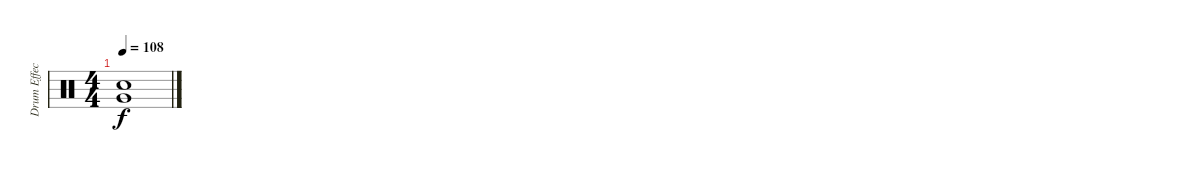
\track ("Drum Effects" "Drum Effec") {instrument percussion}
\staff {score}
\articulation defaults
\ts (4 4)
\tempo 108
\clef neutral
\ks c
("Hand Clap (hit)" "Very Low Tom (hit)").1{dy f}
